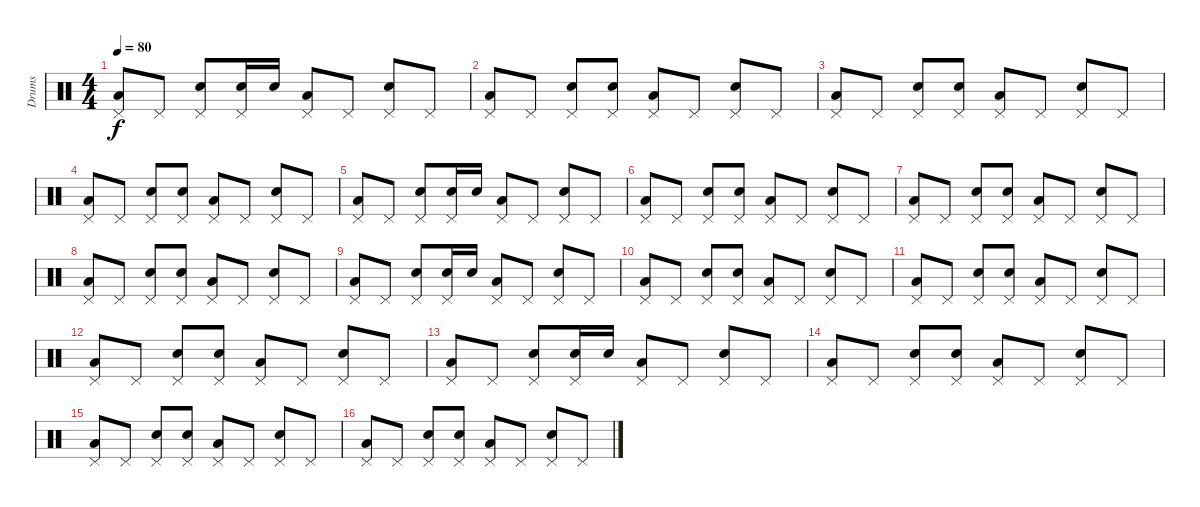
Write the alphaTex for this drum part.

\track ("Drums" "Drums") {instrument percussion}
\staff {score}
\articulation defaults
\ts (4 4)
\tempo 80
\clef neutral
\ks c
("Low Floor Tom (hit)" "Pedal Hi-Hat (hit)").8{dy f} "Pedal Hi-Hat (hit)".8 ("Electric Snare (hit)" "Pedal Hi-Hat (hit)").8 ("Electric Snare (hit)" "Pedal Hi-Hat (hit)").16 "Electric Snare (hit)".16 ("Low Floor Tom (hit)" "Pedal Hi-Hat (hit)").8 "Pedal Hi-Hat (hit)".8 ("Electric Snare (hit)" "Pedal Hi-Hat (hit)").8 "Pedal Hi-Hat (hit)".8 |
("Low Floor Tom (hit)" "Pedal Hi-Hat (hit)").8 "Pedal Hi-Hat (hit)".8 ("Electric Snare (hit)" "Pedal Hi-Hat (hit)").8 ("Electric Snare (hit)" "Pedal Hi-Hat (hit)").8 ("Low Floor Tom (hit)" "Pedal Hi-Hat (hit)").8 "Pedal Hi-Hat (hit)".8 ("Electric Snare (hit)" "Pedal Hi-Hat (hit)").8 "Pedal Hi-Hat (hit)".8 |
("Low Floor Tom (hit)" "Pedal Hi-Hat (hit)").8 "Pedal Hi-Hat (hit)".8 ("Electric Snare (hit)" "Pedal Hi-Hat (hit)").8 ("Electric Snare (hit)" "Pedal Hi-Hat (hit)").8 ("Low Floor Tom (hit)" "Pedal Hi-Hat (hit)").8 "Pedal Hi-Hat (hit)".8 ("Electric Snare (hit)" "Pedal Hi-Hat (hit)").8 "Pedal Hi-Hat (hit)".8 |
("Low Floor Tom (hit)" "Pedal Hi-Hat (hit)").8 "Pedal Hi-Hat (hit)".8 ("Electric Snare (hit)" "Pedal Hi-Hat (hit)").8 ("Electric Snare (hit)" "Pedal Hi-Hat (hit)").8 ("Low Floor Tom (hit)" "Pedal Hi-Hat (hit)").8 "Pedal Hi-Hat (hit)".8 ("Electric Snare (hit)" "Pedal Hi-Hat (hit)").8 "Pedal Hi-Hat (hit)".8 |
("Low Floor Tom (hit)" "Pedal Hi-Hat (hit)").8 "Pedal Hi-Hat (hit)".8 ("Electric Snare (hit)" "Pedal Hi-Hat (hit)").8 ("Electric Snare (hit)" "Pedal Hi-Hat (hit)").16 "Electric Snare (hit)".16 ("Low Floor Tom (hit)" "Pedal Hi-Hat (hit)").8 "Pedal Hi-Hat (hit)".8 ("Electric Snare (hit)" "Pedal Hi-Hat (hit)").8 "Pedal Hi-Hat (hit)".8 |
("Low Floor Tom (hit)" "Pedal Hi-Hat (hit)").8 "Pedal Hi-Hat (hit)".8 ("Electric Snare (hit)" "Pedal Hi-Hat (hit)").8 ("Electric Snare (hit)" "Pedal Hi-Hat (hit)").8 ("Low Floor Tom (hit)" "Pedal Hi-Hat (hit)").8 "Pedal Hi-Hat (hit)".8 ("Electric Snare (hit)" "Pedal Hi-Hat (hit)").8 "Pedal Hi-Hat (hit)".8 |
("Low Floor Tom (hit)" "Pedal Hi-Hat (hit)").8 "Pedal Hi-Hat (hit)".8 ("Electric Snare (hit)" "Pedal Hi-Hat (hit)").8 ("Electric Snare (hit)" "Pedal Hi-Hat (hit)").8 ("Low Floor Tom (hit)" "Pedal Hi-Hat (hit)").8 "Pedal Hi-Hat (hit)".8 ("Electric Snare (hit)" "Pedal Hi-Hat (hit)").8 "Pedal Hi-Hat (hit)".8 |
("Low Floor Tom (hit)" "Pedal Hi-Hat (hit)").8 "Pedal Hi-Hat (hit)".8 ("Electric Snare (hit)" "Pedal Hi-Hat (hit)").8 ("Electric Snare (hit)" "Pedal Hi-Hat (hit)").8 ("Low Floor Tom (hit)" "Pedal Hi-Hat (hit)").8 "Pedal Hi-Hat (hit)".8 ("Electric Snare (hit)" "Pedal Hi-Hat (hit)").8 "Pedal Hi-Hat (hit)".8 |
("Low Floor Tom (hit)" "Pedal Hi-Hat (hit)").8 "Pedal Hi-Hat (hit)".8 ("Electric Snare (hit)" "Pedal Hi-Hat (hit)").8 ("Electric Snare (hit)" "Pedal Hi-Hat (hit)").16 "Electric Snare (hit)".16 ("Low Floor Tom (hit)" "Pedal Hi-Hat (hit)").8 "Pedal Hi-Hat (hit)".8 ("Electric Snare (hit)" "Pedal Hi-Hat (hit)").8 "Pedal Hi-Hat (hit)".8 |
("Low Floor Tom (hit)" "Pedal Hi-Hat (hit)").8 "Pedal Hi-Hat (hit)".8 ("Electric Snare (hit)" "Pedal Hi-Hat (hit)").8 ("Electric Snare (hit)" "Pedal Hi-Hat (hit)").8 ("Low Floor Tom (hit)" "Pedal Hi-Hat (hit)").8 "Pedal Hi-Hat (hit)".8 ("Electric Snare (hit)" "Pedal Hi-Hat (hit)").8 "Pedal Hi-Hat (hit)".8 |
("Low Floor Tom (hit)" "Pedal Hi-Hat (hit)").8 "Pedal Hi-Hat (hit)".8 ("Electric Snare (hit)" "Pedal Hi-Hat (hit)").8 ("Electric Snare (hit)" "Pedal Hi-Hat (hit)").8 ("Low Floor Tom (hit)" "Pedal Hi-Hat (hit)").8 "Pedal Hi-Hat (hit)".8 ("Electric Snare (hit)" "Pedal Hi-Hat (hit)").8 "Pedal Hi-Hat (hit)".8 |
("Low Floor Tom (hit)" "Pedal Hi-Hat (hit)").8 "Pedal Hi-Hat (hit)".8 ("Electric Snare (hit)" "Pedal Hi-Hat (hit)").8 ("Electric Snare (hit)" "Pedal Hi-Hat (hit)").8 ("Low Floor Tom (hit)" "Pedal Hi-Hat (hit)").8 "Pedal Hi-Hat (hit)".8 ("Electric Snare (hit)" "Pedal Hi-Hat (hit)").8 "Pedal Hi-Hat (hit)".8 |
("Low Floor Tom (hit)" "Pedal Hi-Hat (hit)").8 "Pedal Hi-Hat (hit)".8 ("Electric Snare (hit)" "Pedal Hi-Hat (hit)").8 ("Electric Snare (hit)" "Pedal Hi-Hat (hit)").16 "Electric Snare (hit)".16 ("Low Floor Tom (hit)" "Pedal Hi-Hat (hit)").8 "Pedal Hi-Hat (hit)".8 ("Electric Snare (hit)" "Pedal Hi-Hat (hit)").8 "Pedal Hi-Hat (hit)".8 |
("Low Floor Tom (hit)" "Pedal Hi-Hat (hit)").8 "Pedal Hi-Hat (hit)".8 ("Electric Snare (hit)" "Pedal Hi-Hat (hit)").8 ("Electric Snare (hit)" "Pedal Hi-Hat (hit)").8 ("Low Floor Tom (hit)" "Pedal Hi-Hat (hit)").8 "Pedal Hi-Hat (hit)".8 ("Electric Snare (hit)" "Pedal Hi-Hat (hit)").8 "Pedal Hi-Hat (hit)".8 |
("Low Floor Tom (hit)" "Pedal Hi-Hat (hit)").8 "Pedal Hi-Hat (hit)".8 ("Electric Snare (hit)" "Pedal Hi-Hat (hit)").8 ("Electric Snare (hit)" "Pedal Hi-Hat (hit)").8 ("Low Floor Tom (hit)" "Pedal Hi-Hat (hit)").8 "Pedal Hi-Hat (hit)".8 ("Electric Snare (hit)" "Pedal Hi-Hat (hit)").8 "Pedal Hi-Hat (hit)".8 |
("Low Floor Tom (hit)" "Pedal Hi-Hat (hit)").8 "Pedal Hi-Hat (hit)".8 ("Electric Snare (hit)" "Pedal Hi-Hat (hit)").8 ("Electric Snare (hit)" "Pedal Hi-Hat (hit)").8 ("Low Floor Tom (hit)" "Pedal Hi-Hat (hit)").8 "Pedal Hi-Hat (hit)".8 ("Electric Snare (hit)" "Pedal Hi-Hat (hit)").8 "Pedal Hi-Hat (hit)".8
